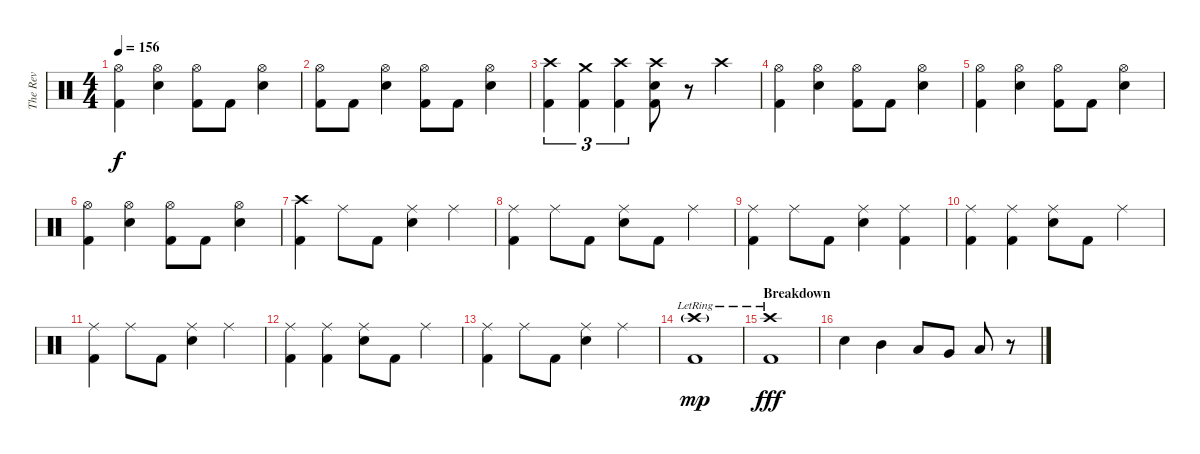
\track ("The Rev" "The Rev") {instrument percussion}
\staff {score}
\articulation defaults
\ts (4 4)
\tempo 156
\clef neutral
\ks c
("Hi-Hat (open)" "Kick (hit) 2").4{dy f} ("Hi-Hat (open)" "Electric Snare (hit)").4 ("Hi-Hat (open)" "Kick (hit) 2").8 "Kick (hit) 2".8 ("Hi-Hat (open)" "Electric Snare (hit)").4 |
("Hi-Hat (open)" "Kick (hit) 2").8 "Kick (hit) 2".8 ("Hi-Hat (open)" "Electric Snare (hit)").4 ("Hi-Hat (open)" "Kick (hit) 2").8 "Kick (hit) 2".8 ("Hi-Hat (open)" "Electric Snare (hit)").4 |
("Crash high (hit)" "Kick (hit) 2").4{tu (3 2)} ("Crash medium (hit)" "Kick (hit) 2").4{tu (3 2)} ("Crash high (hit)" "Kick (hit) 2").4{tu (3 2)} ("Crash high (hit)" "Electric Snare (hit)" "Kick (hit) 2").8 r.8 "Crash high (hit)".4 |
("Hi-Hat (open)" "Kick (hit) 2").4 ("Hi-Hat (open)" "Electric Snare (hit)").4 ("Hi-Hat (open)" "Kick (hit) 2").8 "Kick (hit) 2".8 ("Hi-Hat (open)" "Electric Snare (hit)").4 |
("Hi-Hat (open)" "Kick (hit) 2").4 ("Hi-Hat (open)" "Electric Snare (hit)").4 ("Hi-Hat (open)" "Kick (hit) 2").8 "Kick (hit) 2".8 ("Hi-Hat (open)" "Electric Snare (hit)").4 |
("Hi-Hat (open)" "Kick (hit) 2").4 ("Hi-Hat (open)" "Electric Snare (hit)").4 ("Hi-Hat (open)" "Kick (hit) 2").8 "Kick (hit) 2".8 ("Hi-Hat (open)" "Electric Snare (hit)").4 |
("Crash high (hit)" "Kick (hit) 2").4 "Ride (middle)".8 "Kick (hit) 2".8 ("Ride (middle)" "Electric Snare (hit)").4 "Ride (middle)".4 |
("Ride (middle)" "Kick (hit) 2").4 "Ride (middle)".8 "Kick (hit) 2".8 ("Ride (middle)" "Electric Snare (hit)").8 "Kick (hit) 2".8 "Ride (middle)".4 |
("Ride (middle)" "Kick (hit) 2").4 "Ride (middle)".8 "Kick (hit) 2".8 ("Ride (middle)" "Electric Snare (hit)").4 ("Ride (middle)" "Kick (hit) 2").4 |
("Ride (middle)" "Kick (hit) 2").4 ("Ride (middle)" "Kick (hit) 2").4 ("Ride (middle)" "Electric Snare (hit)").8 "Kick (hit) 2".8 "Ride (middle)".4 |
("Ride (middle)" "Kick (hit) 2").4 "Ride (middle)".8 "Kick (hit) 2".8 ("Ride (middle)" "Electric Snare (hit)").4 "Ride (middle)".4 |
("Ride (middle)" "Kick (hit) 2").4 ("Ride (middle)" "Kick (hit) 2").4 ("Ride (middle)" "Electric Snare (hit)").8 "Kick (hit) 2".8 "Ride (middle)".4 |
("Ride (middle)" "Kick (hit) 2").4 "Ride (middle)".8 "Kick (hit) 2".8 ("Ride (middle)" "Electric Snare (hit)").4 "Ride (middle)".4 |
("Crash high (hit)"{g} "Kick (hit) 2"{lr}).1{dy mp} |
\section ("" "Breakdown")
("Crash high (hit)"{lr} "Kick (hit) 2").1{dy fff} |
"Electric Snare (hit)".4 "Mid Tom (hit)".4 "Low Tom (hit)".8 "Very Low Tom (hit)".8 "Low Floor Tom (hit)".8 r.8
